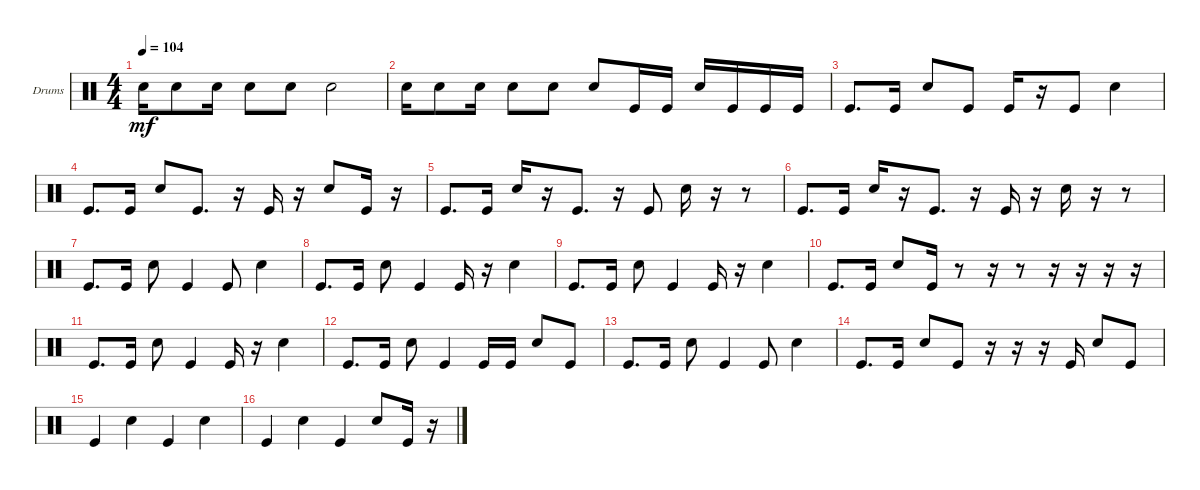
\bracketExtendMode groupsimilarinstruments
\firstSystemTrackNameOrientation horizontal
\otherSystemsTrackNameOrientation horizontal
\track ("Drums" "Drums") {instrument percussion}
\staff {score}
\articulation defaults
\ts (4 4)
\tempo 104
\clef neutral
\ks c "Snare (hit) 2".16{dy mf} "Snare (hit) 2".8 "Snare (hit) 2".16 "Snare (hit) 2".8 "Snare (hit) 2".8 "Snare (hit) 2".2
|
"Snare (hit) 2".16 "Snare (hit) 2".8 "Snare (hit) 2".16 "Snare (hit) 2".8 "Snare (hit) 2".8 "Snare (hit) 2".8 "Kick (hit)".16 "Kick (hit)".16 "Snare (hit) 2".16 "Kick (hit)".16 "Kick (hit)".16 "Kick (hit)".16 |
"Kick (hit)".8{d} "Kick (hit)".16 "Snare (hit) 2".8 "Kick (hit)".8 "Kick (hit)".16 r.16 "Kick (hit)".8 "Snare (hit) 2".4 |
"Kick (hit)".8{d} "Kick (hit)".16 "Snare (hit) 2".8 "Kick (hit)".8{d} r.16 "Kick (hit)".16 r.16 "Snare (hit) 2".8 "Kick (hit)".16 r.16 |
"Kick (hit)".8{d} "Kick (hit)".16 "Snare (hit) 2".16 r.16 "Kick (hit)".8{d} r.16 "Kick (hit)".8 "Snare (hit) 2".16 r.16 r.8 |
"Kick (hit)".8{d} "Kick (hit)".16 "Snare (hit) 2".16 r.16 "Kick (hit)".8{d} r.16 "Kick (hit)".16 r.16 "Snare (hit) 2".16 r.16 r.8 |
"Kick (hit)".8{d} "Kick (hit)".16 "Snare (hit) 2".8 "Kick (hit)".4 "Kick (hit)".8 "Snare (hit) 2".4 |
"Kick (hit)".8{d} "Kick (hit)".16 "Snare (hit) 2".8 "Kick (hit)".4 "Kick (hit)".16 r.16 "Snare (hit) 2".4 |
"Kick (hit)".8{d} "Kick (hit)".16 "Snare (hit) 2".8 "Kick (hit)".4 "Kick (hit)".16 r.16 "Snare (hit) 2".4 |
"Kick (hit)".8{d} "Kick (hit)".16 "Snare (hit) 2".8 "Kick (hit)".16 r.8 r.16 r.8 r.16 r.16 r.16 r.16 |
"Kick (hit)".8{d} "Kick (hit)".16 "Snare (hit) 2".8 "Kick (hit)".4 "Kick (hit)".16 r.16 "Snare (hit) 2".4 |
"Kick (hit)".8{d} "Kick (hit)".16 "Snare (hit) 2".8 "Kick (hit)".4 "Kick (hit)".16 "Kick (hit)".16 "Snare (hit) 2".8 "Kick (hit)".8 |
"Kick (hit)".8{d} "Kick (hit)".16 "Snare (hit) 2".8 "Kick (hit)".4 "Kick (hit)".8 "Snare (hit) 2".4 |
"Kick (hit)".8{d} "Kick (hit)".16 "Snare (hit) 2".8 "Kick (hit)".8 r.16 r.16 r.16 "Kick (hit)".16 "Snare (hit) 2".8 "Kick (hit)".8 |
"Kick (hit)".4 "Snare (hit) 2".4 "Kick (hit)".4 "Snare (hit) 2".4 |
"Kick (hit)".4 "Snare (hit) 2".4 "Kick (hit)".4 "Snare (hit) 2".8 "Kick (hit)".16 r.16
